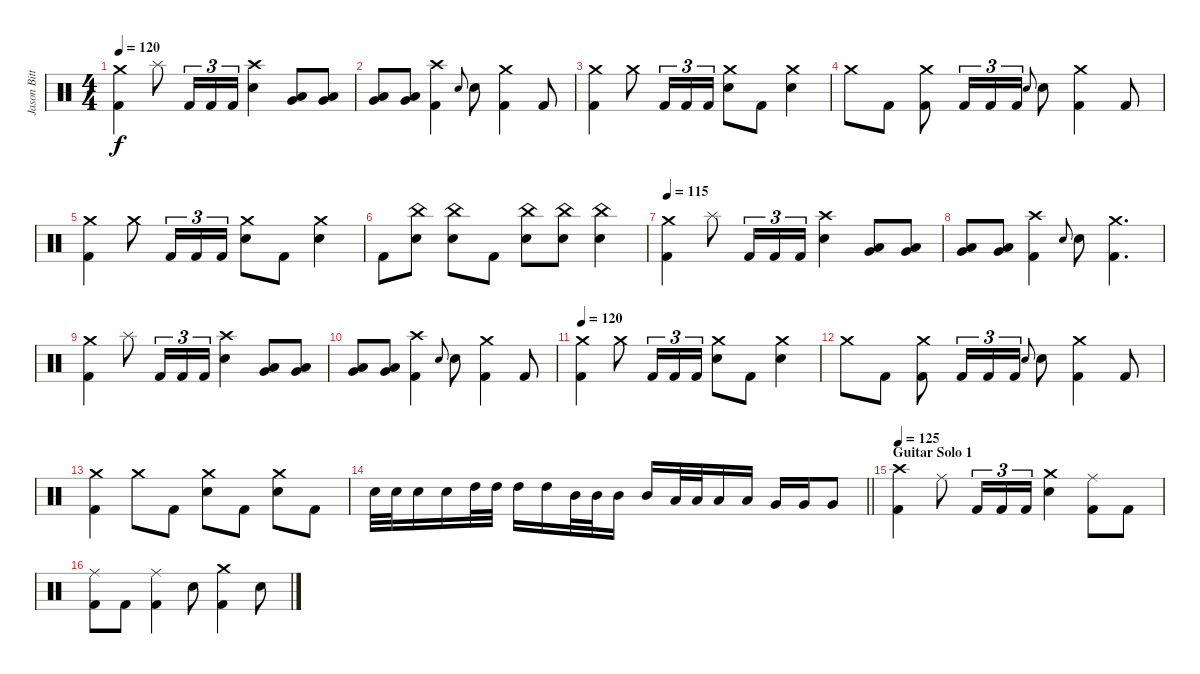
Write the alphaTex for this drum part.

\track ("Jason Bittner" "Jason Bitt") {instrument percussion}
\staff {score}
\articulation defaults
\ts (4 4)
\tempo 120
\clef neutral
\ks c
("Crash medium (hit)" "Kick (hit) 2").4{dy f} "Splash (hit)".8 "Kick (hit) 2".16{tu (3 2)} "Kick (hit) 2".16{tu (3 2)} "Kick (hit) 2".16{tu (3 2)} ("Crash high (hit)" "Electric Snare (hit)").4 ("Low Tom (hit)" "Very Low Tom (hit)").8 ("Low Tom (hit)" "Very Low Tom (hit)").8 |
("Low Tom (hit)" "Very Low Tom (hit)").8 ("Low Tom (hit)" "Very Low Tom (hit)").8 ("Crash high (hit)" "Kick (hit) 2").4 "Electric Snare (hit)".8{gr onbeat} "Electric Snare (hit)".8 ("Crash medium (hit)" "Kick (hit) 2").4 "Kick (hit) 2".8 |
("Crash medium (hit)" "Kick (hit) 2").4 "Crash medium (hit)".8 "Kick (hit) 2".16{tu (3 2)} "Kick (hit) 2".16{tu (3 2)} "Kick (hit) 2".16{tu (3 2)} ("Crash medium (hit)" "Electric Snare (hit)").8 "Kick (hit) 2".8 ("Crash medium (hit)" "Electric Snare (hit)").4 |
"Crash medium (hit)".8 "Kick (hit) 2".8 ("Crash medium (hit)" "Kick (hit) 2").8 "Kick (hit) 2".16{tu (3 2)} "Kick (hit) 2".16{tu (3 2)} "Kick (hit) 2".16{tu (3 2)} "Electric Snare (hit)".8{gr onbeat} "Electric Snare (hit)".8 ("Crash medium (hit)" "Kick (hit) 2").4 "Kick (hit) 2".8 |
("Crash medium (hit)" "Kick (hit) 2").4 "Crash medium (hit)".8 "Kick (hit) 2".16{tu (3 2)} "Kick (hit) 2".16{tu (3 2)} "Kick (hit) 2".16{tu (3 2)} ("Crash medium (hit)" "Electric Snare (hit)").8 "Kick (hit) 2".8 ("Crash medium (hit)" "Electric Snare (hit)").4 |
"Kick (hit) 2".8 ("China (hit)" "Electric Snare (hit)").8 ("China (hit)" "Electric Snare (hit)").8 "Kick (hit) 2".8 ("China (hit)" "Electric Snare (hit)").8 ("China (hit)" "Electric Snare (hit)").8 ("China (hit)" "Electric Snare (hit)").4 |
\tempo 115
("Crash medium (hit)" "Kick (hit) 2").4 "Splash (hit)".8 "Kick (hit) 2".16{tu (3 2)} "Kick (hit) 2".16{tu (3 2)} "Kick (hit) 2".16{tu (3 2)} ("Crash high (hit)" "Electric Snare (hit)").4 ("Low Tom (hit)" "Very Low Tom (hit)").8 ("Low Tom (hit)" "Very Low Tom (hit)").8 |
("Low Tom (hit)" "Very Low Tom (hit)").8 ("Low Tom (hit)" "Very Low Tom (hit)").8 ("Crash high (hit)" "Kick (hit) 2").4 "Electric Snare (hit)".8{gr onbeat} "Electric Snare (hit)".8 ("Crash medium (hit)" "Kick (hit) 2").4{d} |
("Crash medium (hit)" "Kick (hit) 2").4 "Splash (hit)".8 "Kick (hit) 2".16{tu (3 2)} "Kick (hit) 2".16{tu (3 2)} "Kick (hit) 2".16{tu (3 2)} ("Crash high (hit)" "Electric Snare (hit)").4 ("Low Tom (hit)" "Very Low Tom (hit)").8 ("Low Tom (hit)" "Very Low Tom (hit)").8 |
("Low Tom (hit)" "Very Low Tom (hit)").8 ("Low Tom (hit)" "Very Low Tom (hit)").8 ("Crash high (hit)" "Kick (hit) 2").4 "Electric Snare (hit)".8{gr onbeat} "Electric Snare (hit)".8 ("Crash medium (hit)" "Kick (hit) 2").4 "Kick (hit) 2".8 |
\tempo 120
("Crash medium (hit)" "Kick (hit) 2").4 "Crash medium (hit)".8 "Kick (hit) 2".16{tu (3 2)} "Kick (hit) 2".16{tu (3 2)} "Kick (hit) 2".16{tu (3 2)} ("Crash medium (hit)" "Electric Snare (hit)").8 "Kick (hit) 2".8 ("Crash medium (hit)" "Electric Snare (hit)").4 |
"Crash medium (hit)".8 "Kick (hit) 2".8 ("Crash medium (hit)" "Kick (hit) 2").8 "Kick (hit) 2".16{tu (3 2)} "Kick (hit) 2".16{tu (3 2)} "Kick (hit) 2".16{tu (3 2)} "Electric Snare (hit)".8{gr onbeat} "Electric Snare (hit)".8 ("Crash medium (hit)" "Kick (hit) 2").4 "Kick (hit) 2".8 |
("Crash medium (hit)" "Kick (hit) 2").4 "Crash medium (hit)".8 "Kick (hit) 2".8 ("Crash medium (hit)" "Electric Snare (hit)").8 "Kick (hit) 2".8 ("Crash medium (hit)" "Electric Snare (hit)").8 "Kick (hit) 2".8 |
\barLineRight lightlight "Electric Snare (hit)".32 "Electric Snare (hit)".32 "Electric Snare (hit)".16 "Electric Snare (hit)".16 "High Tom (hit)".32 "High Tom (hit)".32 "High Tom (hit)".16 "High Tom (hit)".16 "Mid Tom (hit)".32 "Mid Tom (hit)".32 "Mid Tom (hit)".16 "Mid Tom (hit)".16 "Low Tom (hit)".32 "Low Tom (hit)".32 "Low Tom (hit)".16 "Low Tom (hit)".16 "Very Low Tom (hit)".16 "Very Low Tom (hit)".16 "Very Low Tom (hit)".8
|
\section ("" "Guitar Solo 1")
\tempo 125
("Crash high (hit)" "Kick (hit) 2").4 "Ride (middle)".8 "Kick (hit) 2".16{tu (3 2)} "Kick (hit) 2".16{tu (3 2)} "Kick (hit) 2".16{tu (3 2)} ("Crash medium (hit)" "Electric Snare (hit)").4 ("Ride (middle)" "Kick (hit) 2").8 "Kick (hit) 2".8 |
("Ride (middle)" "Kick (hit) 2").8 "Kick (hit) 2".8 ("Ride (middle)" "Kick (hit) 2").4 "Electric Snare (hit)".8 ("Crash medium (hit)" "Kick (hit) 2").4 "Electric Snare (hit)".8
